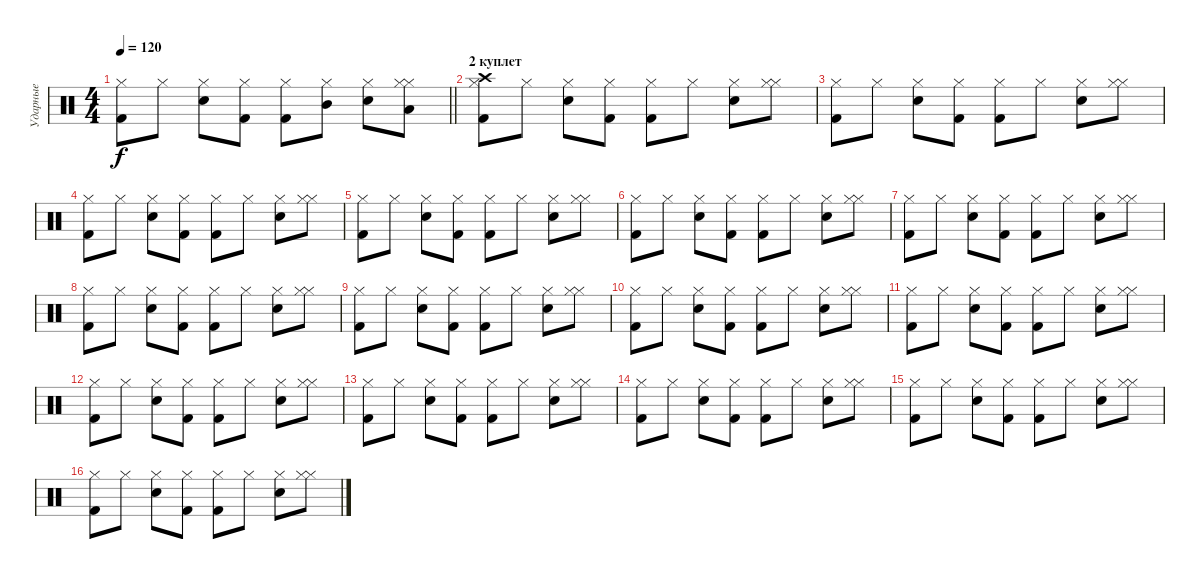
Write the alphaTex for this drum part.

\track ("Ударные" "Ударные") {instrument percussion}
\staff {score}
\articulation defaults
\ts (4 4)
\tempo 120
\clef neutral
\barLineRight lightlight
\ks c
("Kick (hit) 2" "Hi-Hat (closed)").8{dy f} "Hi-Hat (closed)".8 ("Electric Snare (hit)" "Hi-Hat (closed)").8 ("Kick (hit) 2" "Hi-Hat (closed)").8 ("Kick (hit) 2" "Hi-Hat (closed)").8 ("Hi-Hat (closed)" "Mid Tom (hit)").8 ("Electric Snare (hit)" "Hi-Hat (closed)").8 ("Hi-Hat (closed)" "Hi-Hat (closed)" "Low Tom (hit)").8 |
\section ("" "2 куплет")
("Kick (hit) 2" "Hi-Hat (closed)" "Crash high (hit)").8 "Hi-Hat (closed)".8 ("Electric Snare (hit)" "Hi-Hat (closed)").8 ("Kick (hit) 2" "Hi-Hat (closed)").8 ("Kick (hit) 2" "Hi-Hat (closed)").8 "Hi-Hat (closed)".8 ("Electric Snare (hit)" "Hi-Hat (closed)").8 ("Hi-Hat (closed)" "Hi-Hat (closed)").8 |
("Kick (hit) 2" "Hi-Hat (closed)").8 "Hi-Hat (closed)".8 ("Electric Snare (hit)" "Hi-Hat (closed)").8 ("Kick (hit) 2" "Hi-Hat (closed)").8 ("Kick (hit) 2" "Hi-Hat (closed)").8 "Hi-Hat (closed)".8 ("Electric Snare (hit)" "Hi-Hat (closed)").8 ("Hi-Hat (closed)" "Hi-Hat (closed)").8 |
("Kick (hit) 2" "Hi-Hat (closed)").8 "Hi-Hat (closed)".8 ("Electric Snare (hit)" "Hi-Hat (closed)").8 ("Kick (hit) 2" "Hi-Hat (closed)").8 ("Kick (hit) 2" "Hi-Hat (closed)").8 "Hi-Hat (closed)".8 ("Electric Snare (hit)" "Hi-Hat (closed)").8 ("Hi-Hat (closed)" "Hi-Hat (closed)").8 |
("Kick (hit) 2" "Hi-Hat (closed)").8 "Hi-Hat (closed)".8 ("Electric Snare (hit)" "Hi-Hat (closed)").8 ("Kick (hit) 2" "Hi-Hat (closed)").8 ("Kick (hit) 2" "Hi-Hat (closed)").8 "Hi-Hat (closed)".8 ("Electric Snare (hit)" "Hi-Hat (closed)").8 ("Hi-Hat (closed)" "Hi-Hat (closed)").8 |
("Kick (hit) 2" "Hi-Hat (closed)").8 "Hi-Hat (closed)".8 ("Electric Snare (hit)" "Hi-Hat (closed)").8 ("Kick (hit) 2" "Hi-Hat (closed)").8 ("Kick (hit) 2" "Hi-Hat (closed)").8 "Hi-Hat (closed)".8 ("Electric Snare (hit)" "Hi-Hat (closed)").8 ("Hi-Hat (closed)" "Hi-Hat (closed)").8 |
("Kick (hit) 2" "Hi-Hat (closed)").8 "Hi-Hat (closed)".8 ("Electric Snare (hit)" "Hi-Hat (closed)").8 ("Kick (hit) 2" "Hi-Hat (closed)").8 ("Kick (hit) 2" "Hi-Hat (closed)").8 "Hi-Hat (closed)".8 ("Electric Snare (hit)" "Hi-Hat (closed)").8 ("Hi-Hat (closed)" "Hi-Hat (closed)").8 |
("Kick (hit) 2" "Hi-Hat (closed)").8 "Hi-Hat (closed)".8 ("Electric Snare (hit)" "Hi-Hat (closed)").8 ("Kick (hit) 2" "Hi-Hat (closed)").8 ("Kick (hit) 2" "Hi-Hat (closed)").8 "Hi-Hat (closed)".8 ("Electric Snare (hit)" "Hi-Hat (closed)").8 ("Hi-Hat (closed)" "Hi-Hat (closed)").8 |
("Kick (hit) 2" "Hi-Hat (closed)").8 "Hi-Hat (closed)".8 ("Electric Snare (hit)" "Hi-Hat (closed)").8 ("Kick (hit) 2" "Hi-Hat (closed)").8 ("Kick (hit) 2" "Hi-Hat (closed)").8 "Hi-Hat (closed)".8 ("Electric Snare (hit)" "Hi-Hat (closed)").8 ("Hi-Hat (closed)" "Hi-Hat (closed)").8 |
("Kick (hit) 2" "Hi-Hat (closed)").8 "Hi-Hat (closed)".8 ("Electric Snare (hit)" "Hi-Hat (closed)").8 ("Kick (hit) 2" "Hi-Hat (closed)").8 ("Kick (hit) 2" "Hi-Hat (closed)").8 "Hi-Hat (closed)".8 ("Electric Snare (hit)" "Hi-Hat (closed)").8 ("Hi-Hat (closed)" "Hi-Hat (closed)").8 |
("Kick (hit) 2" "Hi-Hat (closed)").8 "Hi-Hat (closed)".8 ("Electric Snare (hit)" "Hi-Hat (closed)").8 ("Kick (hit) 2" "Hi-Hat (closed)").8 ("Kick (hit) 2" "Hi-Hat (closed)").8 "Hi-Hat (closed)".8 ("Electric Snare (hit)" "Hi-Hat (closed)").8 ("Hi-Hat (closed)" "Hi-Hat (closed)").8 |
("Kick (hit) 2" "Hi-Hat (closed)").8 "Hi-Hat (closed)".8 ("Electric Snare (hit)" "Hi-Hat (closed)").8 ("Kick (hit) 2" "Hi-Hat (closed)").8 ("Kick (hit) 2" "Hi-Hat (closed)").8 "Hi-Hat (closed)".8 ("Electric Snare (hit)" "Hi-Hat (closed)").8 ("Hi-Hat (closed)" "Hi-Hat (closed)").8 |
("Kick (hit) 2" "Hi-Hat (closed)").8 "Hi-Hat (closed)".8 ("Electric Snare (hit)" "Hi-Hat (closed)").8 ("Kick (hit) 2" "Hi-Hat (closed)").8 ("Kick (hit) 2" "Hi-Hat (closed)").8 "Hi-Hat (closed)".8 ("Electric Snare (hit)" "Hi-Hat (closed)").8 ("Hi-Hat (closed)" "Hi-Hat (closed)").8 |
("Kick (hit) 2" "Hi-Hat (closed)").8 "Hi-Hat (closed)".8 ("Electric Snare (hit)" "Hi-Hat (closed)").8 ("Kick (hit) 2" "Hi-Hat (closed)").8 ("Kick (hit) 2" "Hi-Hat (closed)").8 "Hi-Hat (closed)".8 ("Electric Snare (hit)" "Hi-Hat (closed)").8 ("Hi-Hat (closed)" "Hi-Hat (closed)").8 |
("Kick (hit) 2" "Hi-Hat (closed)").8 "Hi-Hat (closed)".8 ("Electric Snare (hit)" "Hi-Hat (closed)").8 ("Kick (hit) 2" "Hi-Hat (closed)").8 ("Kick (hit) 2" "Hi-Hat (closed)").8 "Hi-Hat (closed)".8 ("Electric Snare (hit)" "Hi-Hat (closed)").8 ("Hi-Hat (closed)" "Hi-Hat (closed)").8 |
("Kick (hit) 2" "Hi-Hat (closed)").8 "Hi-Hat (closed)".8 ("Electric Snare (hit)" "Hi-Hat (closed)").8 ("Kick (hit) 2" "Hi-Hat (closed)").8 ("Kick (hit) 2" "Hi-Hat (closed)").8 "Hi-Hat (closed)".8 ("Electric Snare (hit)" "Hi-Hat (closed)").8 ("Hi-Hat (closed)" "Hi-Hat (closed)").8
